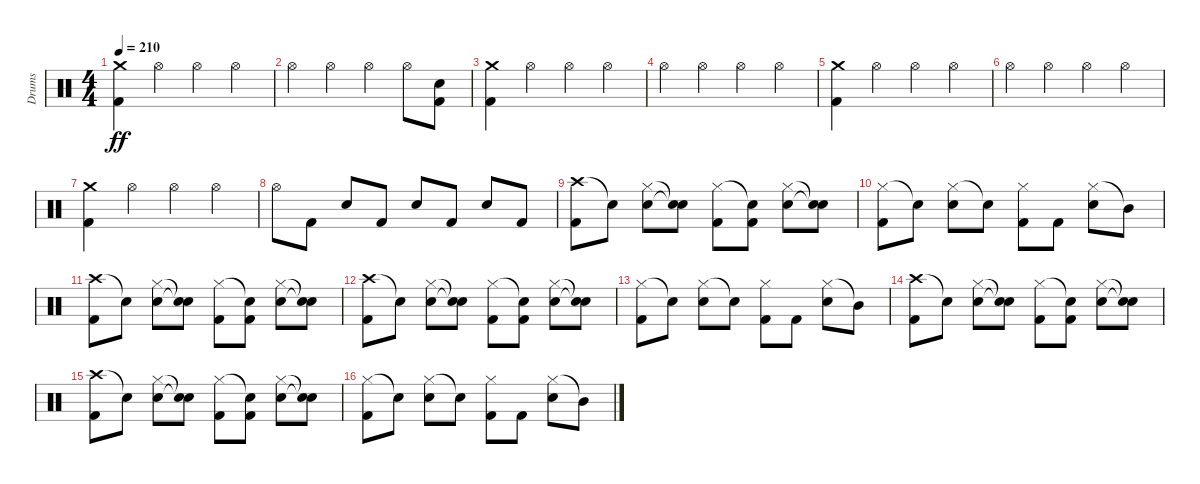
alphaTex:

\track ("Drums" "Drums") {instrument percussion}
\staff {score}
\articulation defaults
\ts (4 4)
\tempo 210
\clef neutral
\ks c
("Crash medium (hit)" "Kick (hit) 2").4{dy ff} "Hi-Hat (open)".4 "Hi-Hat (open)".4 "Hi-Hat (open)".4 |
"Hi-Hat (open)".4 "Hi-Hat (open)".4 "Hi-Hat (open)".4 "Hi-Hat (open)".8 ("Electric Snare (hit)" "Kick (hit) 2").8 |
("Crash medium (hit)" "Kick (hit) 2").4 "Hi-Hat (open)".4 "Hi-Hat (open)".4 "Hi-Hat (open)".4 |
"Hi-Hat (open)".4 "Hi-Hat (open)".4 "Hi-Hat (open)".4 "Hi-Hat (open)".4 |
("Crash medium (hit)" "Kick (hit) 2").4 "Hi-Hat (open)".4 "Hi-Hat (open)".4 "Hi-Hat (open)".4 |
"Hi-Hat (open)".4 "Hi-Hat (open)".4 "Hi-Hat (open)".4 "Hi-Hat (open)".4 |
("Crash medium (hit)" "Kick (hit) 2").4 "Hi-Hat (open)".4 "Hi-Hat (open)".4 "Hi-Hat (open)".4 |
"Hi-Hat (open)".8 "Kick (hit) 2".8 "Electric Snare (hit)".8 "Kick (hit) 2".8 "Electric Snare (hit)".8 "Kick (hit) 2".8 "Electric Snare (hit)".8 "Kick (hit) 2".8 |
("Crash high (hit)" "Kick (hit) 2").8 "Snare (hit)"{t}.8 ("Hi-Hat (closed)" "Electric Snare (hit)").8 ("Snare (hit)"{t} "Snare (hit)"{t}).8 ("Hi-Hat (closed)" "Kick (hit) 2").8 ("Snare (hit)"{t} "Kick (hit) 2").8 ("Hi-Hat (closed)" "Electric Snare (hit)").8 ("Snare (hit)"{t} "Snare (hit)"{t}).8 |
("Hi-Hat (closed)" "Kick (hit) 2").8 "Snare (hit)"{t}.8 ("Hi-Hat (closed)" "Electric Snare (hit)").8 "Snare (hit)"{t}.8 ("Hi-Hat (closed)" "Kick (hit) 2").8 "Kick (hit) 2".8 ("Hi-Hat (closed)" "Electric Snare (hit)").8 "Mid Tom (hit)"{t}.8 |
("Crash high (hit)" "Kick (hit) 2").8 "Snare (hit)"{t}.8 ("Hi-Hat (closed)" "Electric Snare (hit)").8 ("Snare (hit)"{t} "Snare (hit)"{t}).8 ("Hi-Hat (closed)" "Kick (hit) 2").8 ("Snare (hit)"{t} "Kick (hit) 2").8 ("Hi-Hat (closed)" "Electric Snare (hit)").8 ("Snare (hit)"{t} "Snare (hit)"{t}).8 |
("Crash high (hit)" "Kick (hit) 2").8 "Snare (hit)"{t}.8 ("Hi-Hat (closed)" "Electric Snare (hit)").8 ("Snare (hit)"{t} "Snare (hit)"{t}).8 ("Hi-Hat (closed)" "Kick (hit) 2").8 ("Snare (hit)"{t} "Kick (hit) 2").8 ("Hi-Hat (closed)" "Electric Snare (hit)").8 ("Snare (hit)"{t} "Snare (hit)"{t}).8 |
("Hi-Hat (closed)" "Kick (hit) 2").8 "Snare (hit)"{t}.8 ("Hi-Hat (closed)" "Electric Snare (hit)").8 "Snare (hit)"{t}.8 ("Hi-Hat (closed)" "Kick (hit) 2").8 "Kick (hit) 2".8 ("Hi-Hat (closed)" "Electric Snare (hit)").8 "Mid Tom (hit)"{t}.8 |
("Crash high (hit)" "Kick (hit) 2").8 "Snare (hit)"{t}.8 ("Hi-Hat (closed)" "Electric Snare (hit)").8 ("Snare (hit)"{t} "Snare (hit)"{t}).8 ("Hi-Hat (closed)" "Kick (hit) 2").8 ("Snare (hit)"{t} "Kick (hit) 2").8 ("Hi-Hat (closed)" "Electric Snare (hit)").8 ("Snare (hit)"{t} "Snare (hit)"{t}).8 |
("Crash high (hit)" "Kick (hit) 2").8 "Snare (hit)"{t}.8 ("Hi-Hat (closed)" "Electric Snare (hit)").8 ("Snare (hit)"{t} "Snare (hit)"{t}).8 ("Hi-Hat (closed)" "Kick (hit) 2").8 ("Snare (hit)"{t} "Kick (hit) 2").8 ("Hi-Hat (closed)" "Electric Snare (hit)").8 ("Snare (hit)"{t} "Snare (hit)"{t}).8 |
("Hi-Hat (closed)" "Kick (hit) 2").8 "Snare (hit)"{t}.8 ("Hi-Hat (closed)" "Electric Snare (hit)").8 "Snare (hit)"{t}.8 ("Hi-Hat (closed)" "Kick (hit) 2").8 "Kick (hit) 2".8 ("Hi-Hat (closed)" "Electric Snare (hit)").8 "Mid Tom (hit)"{t}.8
